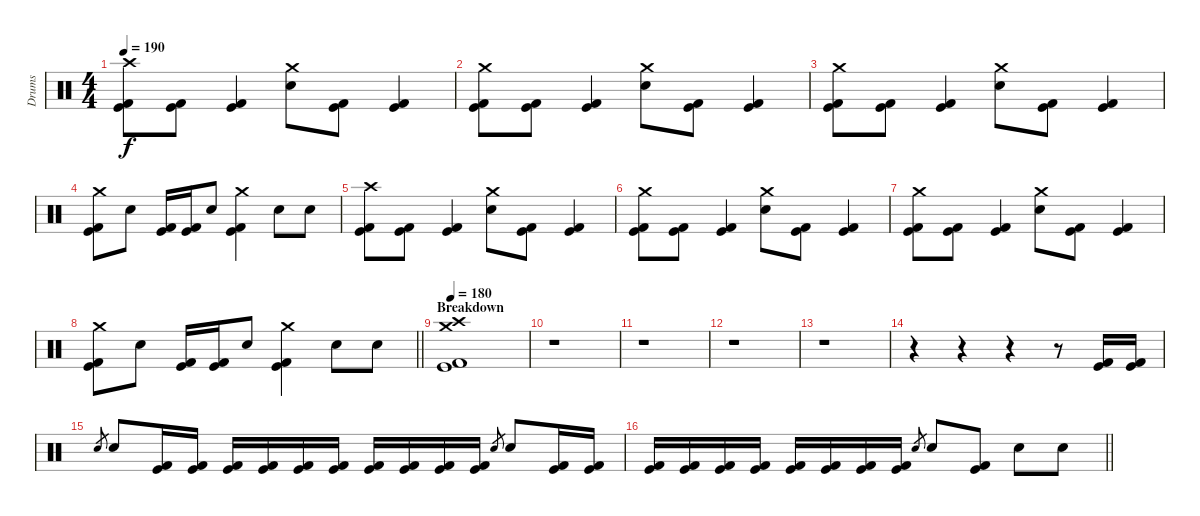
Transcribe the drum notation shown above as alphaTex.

\track ("Drums" "Drums") {instrument percussion}
\staff {score}
\articulation defaults
\ts (4 4)
\tempo 190
\clef neutral
\ks c
("Crash high (hit)" "Kick (hit)" "Kick (hit) 2").8{dy f} ("Kick (hit)" "Kick (hit) 2").8 ("Kick (hit)" "Kick (hit) 2").4 ("Crash medium (hit)" "Electric Snare (hit)").8 ("Kick (hit)" "Kick (hit) 2").8 ("Kick (hit)" "Kick (hit) 2").4 |
("Crash medium (hit)" "Kick (hit)" "Kick (hit) 2").8 ("Kick (hit)" "Kick (hit) 2").8 ("Kick (hit)" "Kick (hit) 2").4 ("Crash medium (hit)" "Electric Snare (hit)").8 ("Kick (hit)" "Kick (hit) 2").8 ("Kick (hit)" "Kick (hit) 2").4 |
("Crash medium (hit)" "Kick (hit)" "Kick (hit) 2").8 ("Kick (hit)" "Kick (hit) 2").8 ("Kick (hit)" "Kick (hit) 2").4 ("Crash medium (hit)" "Electric Snare (hit)").8 ("Kick (hit)" "Kick (hit) 2").8 ("Kick (hit)" "Kick (hit) 2").4 |
("Crash medium (hit)" "Kick (hit)" "Kick (hit) 2").8 "Electric Snare (hit)".8 ("Kick (hit)" "Kick (hit) 2").16 ("Kick (hit)" "Kick (hit) 2").16 "Electric Snare (hit)".8 ("Crash medium (hit)" "Kick (hit)" "Kick (hit) 2").4 "Electric Snare (hit)".8 "Electric Snare (hit)".8 |
("Crash high (hit)" "Kick (hit)" "Kick (hit) 2").8 ("Kick (hit)" "Kick (hit) 2").8 ("Kick (hit)" "Kick (hit) 2").4 ("Crash medium (hit)" "Electric Snare (hit)").8 ("Kick (hit)" "Kick (hit) 2").8 ("Kick (hit)" "Kick (hit) 2").4 |
("Crash medium (hit)" "Kick (hit)" "Kick (hit) 2").8 ("Kick (hit)" "Kick (hit) 2").8 ("Kick (hit)" "Kick (hit) 2").4 ("Crash medium (hit)" "Electric Snare (hit)").8 ("Kick (hit)" "Kick (hit) 2").8 ("Kick (hit)" "Kick (hit) 2").4 |
("Crash medium (hit)" "Kick (hit)" "Kick (hit) 2").8 ("Kick (hit)" "Kick (hit) 2").8 ("Kick (hit)" "Kick (hit) 2").4 ("Crash medium (hit)" "Electric Snare (hit)").8 ("Kick (hit)" "Kick (hit) 2").8 ("Kick (hit)" "Kick (hit) 2").4 |
\barLineRight lightlight
("Crash medium (hit)" "Kick (hit)" "Kick (hit) 2").8 "Electric Snare (hit)".8 ("Kick (hit)" "Kick (hit) 2").16 ("Kick (hit)" "Kick (hit) 2").16 "Electric Snare (hit)".8 ("Crash medium (hit)" "Kick (hit)" "Kick (hit) 2").4 "Electric Snare (hit)".8 "Electric Snare (hit)".8 |
\section ("" "Breakdown")
\tempo 180
("Crash high (hit)" "Crash medium (hit)" "Kick (hit)" "Kick (hit) 2").1 |
r.1 |
r.1 |
r.1 |
r.1 |
r.4 r.4 r.4 r.8 ("Kick (hit)" "Kick (hit) 2").16 ("Kick (hit)" "Kick (hit) 2").16 |
"Electric Snare (hit)".8{gr} "Electric Snare (hit)".8 ("Kick (hit)" "Kick (hit) 2").16 ("Kick (hit)" "Kick (hit) 2").16 ("Kick (hit)" "Kick (hit) 2").16 ("Kick (hit)" "Kick (hit) 2").16 ("Kick (hit)" "Kick (hit) 2").16 ("Kick (hit)" "Kick (hit) 2").16 ("Kick (hit)" "Kick (hit) 2").16 ("Kick (hit)" "Kick (hit) 2").16 ("Kick (hit)" "Kick (hit) 2").16 ("Kick (hit)" "Kick (hit) 2").16 "Electric Snare (hit)".8{gr} "Electric Snare (hit)".8 ("Kick (hit)" "Kick (hit) 2").16 ("Kick (hit)" "Kick (hit) 2").16 |
\barLineRight lightlight
("Kick (hit)" "Kick (hit) 2").16 ("Kick (hit)" "Kick (hit) 2").16 ("Kick (hit)" "Kick (hit) 2").16 ("Kick (hit)" "Kick (hit) 2").16 ("Kick (hit)" "Kick (hit) 2").16 ("Kick (hit)" "Kick (hit) 2").16 ("Kick (hit)" "Kick (hit) 2").16 ("Kick (hit)" "Kick (hit) 2").16 "Electric Snare (hit)".8{gr} "Electric Snare (hit)".8 ("Kick (hit)" "Kick (hit) 2").8 "Electric Snare (hit)".8 "Electric Snare (hit)".8
